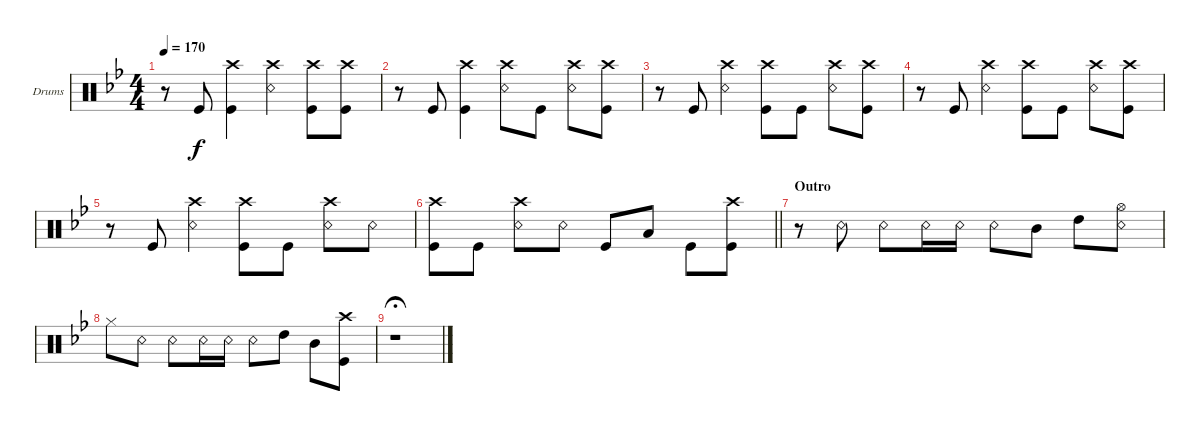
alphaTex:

\defaultSystemsLayout 4
\bracketExtendMode groupsimilarinstruments
\firstSystemTrackNameOrientation horizontal
\otherSystemsTrackNameOrientation horizontal
\track ("Drums" "Drums") {instrument percussion}
\staff {score}
\articulation defaults
\ts (4 4)
\tempo 170
\clef neutral
\ks bb
r.8{dy f} "Kick (hit)".8 ("Kick (hit)" "Crash high (hit)").4 ("Snare (rim shot)" "Crash high (hit)").4 ("Kick (hit)" "Crash high (hit)").8 ("Kick (hit)" "Crash high (hit)").8 |
r.8 "Kick (hit)".8 ("Kick (hit)" "Crash high (hit)").4 ("Snare (rim shot)" "Crash high (hit)").8 "Kick (hit)".8 ("Snare (rim shot)" "Crash high (hit)").8 ("Kick (hit)" "Crash high (hit)").8 |
r.8 "Kick (hit)".8 ("Snare (rim shot)" "Crash high (hit)").4 ("Kick (hit)" "Crash high (hit)").8 "Kick (hit)".8 ("Snare (rim shot)" "Crash high (hit)").8 ("Kick (hit)" "Crash high (hit)").8 |
r.8 "Kick (hit)".8 ("Snare (rim shot)" "Crash high (hit)").4 ("Kick (hit)" "Crash high (hit)").8 "Kick (hit)".8 ("Snare (rim shot)" "Crash high (hit)").8 ("Kick (hit)" "Crash high (hit)").8 |
r.8 "Kick (hit)".8 ("Snare (rim shot)" "Crash high (hit)").4 ("Kick (hit)" "Crash high (hit)").8 "Kick (hit)".8 ("Snare (rim shot)" "Crash high (hit)").8 "Snare (rim shot)".8 |
\barLineRight lightlight
("Kick (hit)" "Crash high (hit)").8 "Kick (hit)".8 ("Snare (rim shot)" "Crash high (hit)").8 "Snare (rim shot)".8 "Kick (hit)".8 "Low Tom (hit)".8 "Kick (hit)".8 ("Kick (hit)" "Crash high (hit)").8 |
\section ("" "Outro")
r.8 "Snare (rim shot)".8 "Snare (rim shot)".8 "Snare (rim shot)".16 "Snare (rim shot)".16 "Snare (rim shot)".8 "Mid Tom (hit)".8 "High Tom (hit)".8 ("Snare (rim shot)" "Hi-Hat (open)").8 |
"Hi-Hat (closed)".8 "Snare (rim shot)".8 "Snare (rim shot)".8 "Snare (rim shot)".16 "Snare (rim shot)".16 "Snare (rim shot)".8 "High Tom (hit)".8 "Mid Tom (hit)".8 ("Crash high (hit)" "Kick (hit)").8 |
r.1{fermata (medium 1)}
